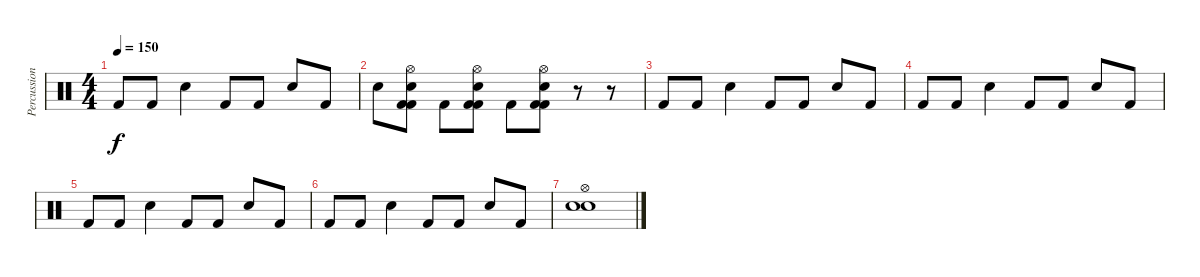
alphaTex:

\track ("Percussions" "Percussion") {instrument percussion}
\staff {score}
\articulation defaults
\ts (4 4)
\tempo 150
\clef neutral
\ks c "Kick (hit) 2".8{dy f} "Kick (hit) 2".8 "Snare (hit) 2".4 "Kick (hit) 2".8 "Kick (hit) 2".8 "Snare (hit) 2".8 "Kick (hit) 2".8
|
"Snare (hit) 2".8 ("Snare (hit) 2" "Kick (hit) 2" "Hi-Hat (open)" "Kick (hit) 2").8 "Kick (hit) 2".8 ("Snare (hit) 2" "Hi-Hat (open)" "Kick (hit) 2" "Kick (hit) 2").8 "Kick (hit) 2".8 ("Snare (hit) 2" "Hi-Hat (open)" "Kick (hit) 2" "Kick (hit) 2").8 r.8 r.8 |
"Kick (hit) 2".8 "Kick (hit) 2".8 "Snare (hit) 2".4 "Kick (hit) 2".8 "Kick (hit) 2".8 "Snare (hit) 2".8 "Kick (hit) 2".8 |
"Kick (hit) 2".8 "Kick (hit) 2".8 "Snare (hit) 2".4 "Kick (hit) 2".8 "Kick (hit) 2".8 "Snare (hit) 2".8 "Kick (hit) 2".8 |
"Kick (hit) 2".8 "Kick (hit) 2".8 "Snare (hit) 2".4 "Kick (hit) 2".8 "Kick (hit) 2".8 "Snare (hit) 2".8 "Kick (hit) 2".8 |
"Kick (hit) 2".8 "Kick (hit) 2".8 "Snare (hit) 2".4 "Kick (hit) 2".8 "Kick (hit) 2".8 "Snare (hit) 2".8 "Kick (hit) 2".8 |
("Hi-Hat (open)" "Snare (hit) 2" "Snare (hit) 2").1
